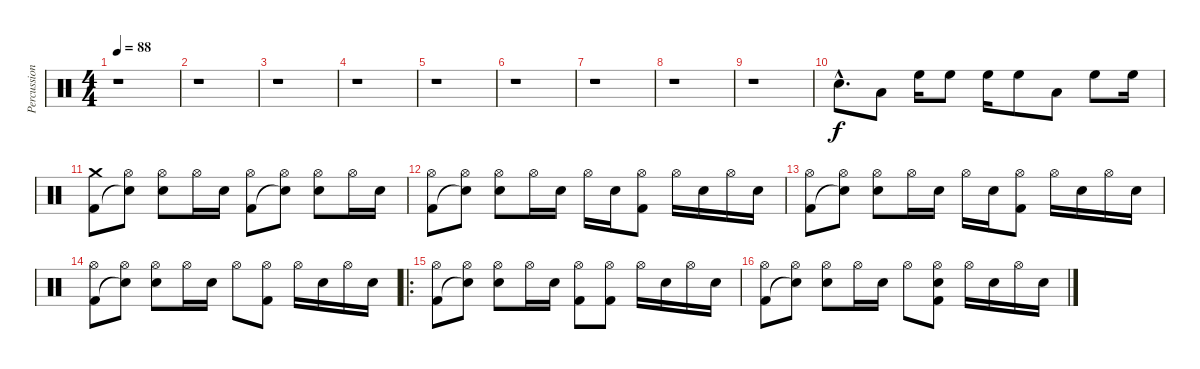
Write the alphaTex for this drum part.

\track ("Percussion" "Percussion") {instrument percussion}
\staff {score}
\articulation defaults
\ts (4 4)
\tempo 88
\clef neutral
\ks c
r.1{dy f} |
r.1 |
r.1 |
r.1 |
r.1 |
r.1 |
r.1 |
r.1 |
r.1 |
"Snare (hit) 2"{hac}.8{d} "Low Tom (hit)".8 "High Floor Tom (hit)".16 "High Floor Tom (hit)".8 "High Floor Tom (hit)".16 "High Floor Tom (hit)".8 "Low Tom (hit)".8 "High Floor Tom (hit)".8 "High Floor Tom (hit)".16 |
("Crash medium (hit)" "Kick (hit) 2").8 ("Hi-Hat (open)" "Snare (hit)"{t}).8 ("Hi-Hat (open)" "Snare (hit) 2").8 "Hi-Hat (open)".16 "Snare (hit) 2".16 ("Hi-Hat (open)" "Kick (hit) 2").8 ("Hi-Hat (open)" "Snare (hit)"{t}).8 ("Hi-Hat (open)" "Snare (hit) 2").8 "Hi-Hat (open)".16 "Snare (hit) 2".16 |
("Hi-Hat (open)" "Kick (hit) 2").8 ("Hi-Hat (open)" "Snare (hit)"{t}).8 ("Hi-Hat (open)" "Snare (hit) 2").8 "Hi-Hat (open)".16 "Snare (hit) 2".16 "Hi-Hat (open)".16 "Snare (hit) 2".16 ("Hi-Hat (open)" "Kick (hit) 2").8 "Hi-Hat (open)".16 "Snare (hit) 2".16 "Hi-Hat (open)".16 "Snare (hit) 2".16 |
("Hi-Hat (open)" "Kick (hit) 2").8 ("Hi-Hat (open)" "Snare (hit)"{t}).8 ("Hi-Hat (open)" "Snare (hit) 2").8 "Hi-Hat (open)".16 "Snare (hit) 2".16 "Hi-Hat (open)".16 "Snare (hit) 2".16 ("Hi-Hat (open)" "Kick (hit) 2").8 "Hi-Hat (open)".16 "Snare (hit) 2".16 "Hi-Hat (open)".16 "Snare (hit) 2".16 |
("Hi-Hat (open)" "Kick (hit) 2").8 ("Hi-Hat (open)" "Snare (hit)"{t}).8 ("Hi-Hat (open)" "Snare (hit) 2").8 "Hi-Hat (open)".16 "Snare (hit) 2".16 "Hi-Hat (open)".8 ("Hi-Hat (open)" "Kick (hit) 2").8 "Hi-Hat (open)".16 "Snare (hit) 2".16 "Hi-Hat (open)".16 "Snare (hit) 2".16 |
\ro
("Hi-Hat (open)" "Kick (hit) 2").8 ("Hi-Hat (open)" "Snare (hit)"{t}).8 ("Hi-Hat (open)" "Snare (hit) 2").8 "Hi-Hat (open)".16 "Snare (hit) 2".16 ("Hi-Hat (open)" "Kick (hit) 2").8 ("Hi-Hat (open)" "Kick (hit) 2").8 "Hi-Hat (open)".16 "Snare (hit) 2".16 "Hi-Hat (open)".16 "Snare (hit) 2".16 |
("Hi-Hat (open)" "Kick (hit) 2").8 ("Hi-Hat (open)" "Snare (hit)"{t}).8 ("Hi-Hat (open)" "Snare (hit) 2").8 "Hi-Hat (open)".16 "Snare (hit) 2".16 "Hi-Hat (open)".8 ("Hi-Hat (open)" "Snare (hit) 2" "Kick (hit) 2").8 "Hi-Hat (open)".16 "Snare (hit) 2".16 "Hi-Hat (open)".16 "Snare (hit) 2".16
